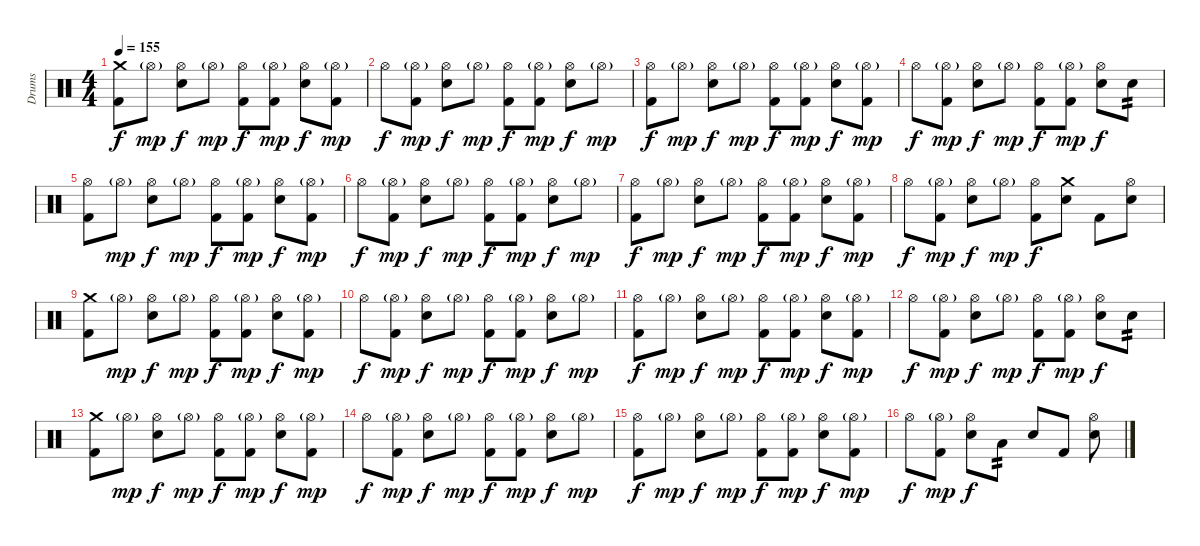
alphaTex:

\track ("Drums" "Drums") {instrument percussion}
\staff {score}
\articulation defaults
\ts (4 4)
\tempo 155
\clef neutral
\ks c
("Crash medium (hit)" "Kick (hit) 2").8{dy f} "Hi-Hat (open)"{g}.8{dy mp} ("Hi-Hat (open)" "Electric Snare (hit)").8{dy f} "Hi-Hat (open)"{g}.8{dy mp} ("Hi-Hat (open)" "Kick (hit) 2").8{dy f} ("Hi-Hat (open)"{g} "Kick (hit) 2").8{dy mp} ("Hi-Hat (open)" "Electric Snare (hit)").8{dy f} ("Hi-Hat (open)"{g} "Kick (hit) 2").8{dy mp} |
"Hi-Hat (open)".8{dy f} ("Hi-Hat (open)"{g} "Kick (hit) 2").8{dy mp} ("Hi-Hat (open)" "Electric Snare (hit)").8{dy f} "Hi-Hat (open)"{g}.8{dy mp} ("Hi-Hat (open)" "Kick (hit) 2").8{dy f} ("Hi-Hat (open)"{g} "Kick (hit) 2").8{dy mp} ("Hi-Hat (open)" "Electric Snare (hit)").8{dy f} "Hi-Hat (open)"{g}.8{dy mp} |
("Hi-Hat (open)" "Kick (hit) 2").8{dy f} "Hi-Hat (open)"{g}.8{dy mp} ("Hi-Hat (open)" "Electric Snare (hit)").8{dy f} "Hi-Hat (open)"{g}.8{dy mp} ("Hi-Hat (open)" "Kick (hit) 2").8{dy f} ("Hi-Hat (open)"{g} "Kick (hit) 2").8{dy mp} ("Hi-Hat (open)" "Electric Snare (hit)").8{dy f} ("Hi-Hat (open)"{g} "Kick (hit) 2").8{dy mp} |
"Hi-Hat (open)".8{dy f} ("Hi-Hat (open)"{g} "Kick (hit) 2").8{dy mp} ("Hi-Hat (open)" "Electric Snare (hit)").8{dy f} "Hi-Hat (open)"{g}.8{dy mp} ("Hi-Hat (open)" "Kick (hit) 2").8{dy f} ("Hi-Hat (open)"{g} "Kick (hit) 2").8{dy mp} ("Hi-Hat (open)" "Electric Snare (hit)").8{dy f} "Electric Snare (hit)".8{tp 2} |
("Hi-Hat (open)" "Kick (hit) 2").8 "Hi-Hat (open)"{g}.8{dy mp} ("Hi-Hat (open)" "Electric Snare (hit)").8{dy f} "Hi-Hat (open)"{g}.8{dy mp} ("Hi-Hat (open)" "Kick (hit) 2").8{dy f} ("Hi-Hat (open)"{g} "Kick (hit) 2").8{dy mp} ("Hi-Hat (open)" "Electric Snare (hit)").8{dy f} ("Hi-Hat (open)"{g} "Kick (hit) 2").8{dy mp} |
"Hi-Hat (open)".8{dy f} ("Hi-Hat (open)"{g} "Kick (hit) 2").8{dy mp} ("Hi-Hat (open)" "Electric Snare (hit)").8{dy f} "Hi-Hat (open)"{g}.8{dy mp} ("Hi-Hat (open)" "Kick (hit) 2").8{dy f} ("Hi-Hat (open)"{g} "Kick (hit) 2").8{dy mp} ("Hi-Hat (open)" "Electric Snare (hit)").8{dy f} "Hi-Hat (open)"{g}.8{dy mp} |
("Hi-Hat (open)" "Kick (hit) 2").8{dy f} "Hi-Hat (open)"{g}.8{dy mp} ("Hi-Hat (open)" "Electric Snare (hit)").8{dy f} "Hi-Hat (open)"{g}.8{dy mp} ("Hi-Hat (open)" "Kick (hit) 2").8{dy f} ("Hi-Hat (open)"{g} "Kick (hit) 2").8{dy mp} ("Hi-Hat (open)" "Electric Snare (hit)").8{dy f} ("Hi-Hat (open)"{g} "Kick (hit) 2").8{dy mp} |
"Hi-Hat (open)".8{dy f} ("Hi-Hat (open)"{g} "Kick (hit) 2").8{dy mp} ("Hi-Hat (open)" "Electric Snare (hit)").8{dy f} "Hi-Hat (open)"{g}.8{dy mp} ("Hi-Hat (open)" "Kick (hit) 2").8{dy f} ("Crash medium (hit)" "Electric Snare (hit)").8 "Kick (hit) 2".8 ("Hi-Hat (open)" "Electric Snare (hit)").8 |
("Crash medium (hit)" "Kick (hit) 2").8 "Hi-Hat (open)"{g}.8{dy mp} ("Hi-Hat (open)" "Electric Snare (hit)").8{dy f} "Hi-Hat (open)"{g}.8{dy mp} ("Hi-Hat (open)" "Kick (hit) 2").8{dy f} ("Hi-Hat (open)"{g} "Kick (hit) 2").8{dy mp} ("Hi-Hat (open)" "Electric Snare (hit)").8{dy f} ("Hi-Hat (open)"{g} "Kick (hit) 2").8{dy mp} |
"Hi-Hat (open)".8{dy f} ("Hi-Hat (open)"{g} "Kick (hit) 2").8{dy mp} ("Hi-Hat (open)" "Electric Snare (hit)").8{dy f} "Hi-Hat (open)"{g}.8{dy mp} ("Hi-Hat (open)" "Kick (hit) 2").8{dy f} ("Hi-Hat (open)"{g} "Kick (hit) 2").8{dy mp} ("Hi-Hat (open)" "Electric Snare (hit)").8{dy f} "Hi-Hat (open)"{g}.8{dy mp} |
("Hi-Hat (open)" "Kick (hit) 2").8{dy f} "Hi-Hat (open)"{g}.8{dy mp} ("Hi-Hat (open)" "Electric Snare (hit)").8{dy f} "Hi-Hat (open)"{g}.8{dy mp} ("Hi-Hat (open)" "Kick (hit) 2").8{dy f} ("Hi-Hat (open)"{g} "Kick (hit) 2").8{dy mp} ("Hi-Hat (open)" "Electric Snare (hit)").8{dy f} ("Hi-Hat (open)"{g} "Kick (hit) 2").8{dy mp} |
"Hi-Hat (open)".8{dy f} ("Hi-Hat (open)"{g} "Kick (hit) 2").8{dy mp} ("Hi-Hat (open)" "Electric Snare (hit)").8{dy f} "Hi-Hat (open)"{g}.8{dy mp} ("Hi-Hat (open)" "Kick (hit) 2").8{dy f} ("Hi-Hat (open)"{g} "Kick (hit) 2").8{dy mp} ("Hi-Hat (open)" "Electric Snare (hit)").8{dy f} "Electric Snare (hit)".8{tp 2} |
("Crash medium (hit)" "Kick (hit) 2").8 "Hi-Hat (open)"{g}.8{dy mp} ("Hi-Hat (open)" "Electric Snare (hit)").8{dy f} "Hi-Hat (open)"{g}.8{dy mp} ("Hi-Hat (open)" "Kick (hit) 2").8{dy f} ("Hi-Hat (open)"{g} "Kick (hit) 2").8{dy mp} ("Hi-Hat (open)" "Electric Snare (hit)").8{dy f} ("Hi-Hat (open)"{g} "Kick (hit) 2").8{dy mp} |
"Hi-Hat (open)".8{dy f} ("Hi-Hat (open)"{g} "Kick (hit) 2").8{dy mp} ("Hi-Hat (open)" "Electric Snare (hit)").8{dy f} "Hi-Hat (open)"{g}.8{dy mp} ("Hi-Hat (open)" "Kick (hit) 2").8{dy f} ("Hi-Hat (open)"{g} "Kick (hit) 2").8{dy mp} ("Hi-Hat (open)" "Electric Snare (hit)").8{dy f} "Hi-Hat (open)"{g}.8{dy mp} |
("Hi-Hat (open)" "Kick (hit) 2").8{dy f} "Hi-Hat (open)"{g}.8{dy mp} ("Hi-Hat (open)" "Electric Snare (hit)").8{dy f} "Hi-Hat (open)"{g}.8{dy mp} ("Hi-Hat (open)" "Kick (hit) 2").8{dy f} ("Hi-Hat (open)"{g} "Kick (hit) 2").8{dy mp} ("Hi-Hat (open)" "Electric Snare (hit)").8{dy f} ("Hi-Hat (open)"{g} "Kick (hit) 2").8{dy mp} |
"Hi-Hat (open)".8{dy f} ("Hi-Hat (open)"{g} "Kick (hit) 2").8{dy mp} ("Hi-Hat (open)" "Electric Snare (hit)").8{dy f} "Low Tom (hit)".8{tp 2} "Electric Snare (hit)".8 "Kick (hit) 2".8 ("Electric Snare (hit)" "Hi-Hat (open)").8
